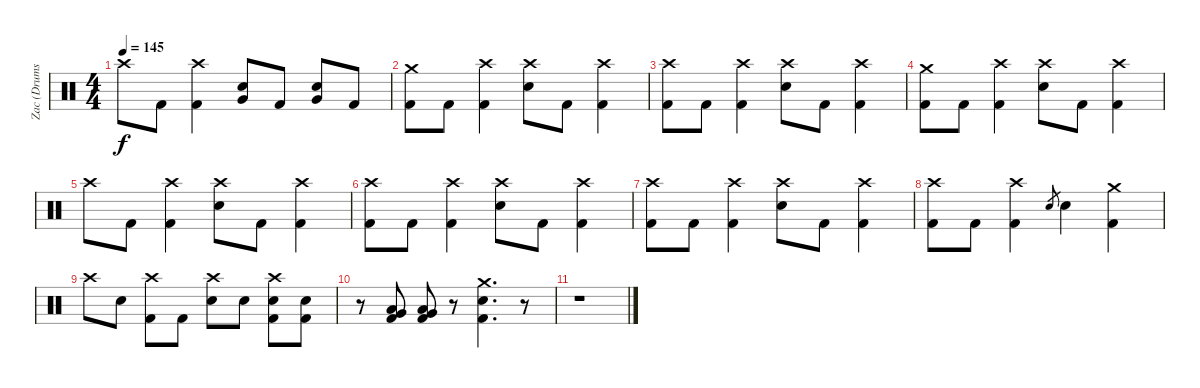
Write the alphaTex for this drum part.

\track ("Zac (Drums)" "Zac (Drums") {instrument percussion}
\staff {score}
\articulation defaults
\ts (4 4)
\tempo 145
\clef neutral
\ks c "Crash high (hit)".8{dy f} "Kick (hit) 2".8
("Crash high (hit)" "Kick (hit) 2").4 ("Very Low Tom (hit)" "Electric Snare (hit)").8 "Kick (hit) 2".8 ("Very Low Tom (hit)" "Electric Snare (hit)").8 "Kick (hit) 2".8 |
("Crash medium (hit)" "Kick (hit) 2").8 "Kick (hit) 2".8 ("Crash high (hit)" "Kick (hit) 2").4 ("Crash high (hit)" "Electric Snare (hit)").8 "Kick (hit) 2".8 ("Crash high (hit)" "Kick (hit) 2").4 |
("Crash high (hit)" "Kick (hit) 2").8 "Kick (hit) 2".8 ("Crash high (hit)" "Kick (hit) 2").4 ("Crash high (hit)" "Electric Snare (hit)").8 "Kick (hit) 2".8 ("Crash high (hit)" "Kick (hit) 2").4 |
("Crash medium (hit)" "Kick (hit) 2").8 "Kick (hit) 2".8 ("Crash high (hit)" "Kick (hit) 2").4 ("Crash high (hit)" "Electric Snare (hit)").8 "Kick (hit) 2".8 ("Crash high (hit)" "Kick (hit) 2").4 |
"Crash high (hit)".8 "Kick (hit) 2".8 ("Crash high (hit)" "Kick (hit) 2").4 ("Crash high (hit)" "Electric Snare (hit)").8 "Kick (hit) 2".8 ("Crash high (hit)" "Kick (hit) 2").4 |
("Crash high (hit)" "Kick (hit) 2").8 "Kick (hit) 2".8 ("Crash high (hit)" "Kick (hit) 2").4 ("Crash high (hit)" "Electric Snare (hit)").8 "Kick (hit) 2".8 ("Crash high (hit)" "Kick (hit) 2").4 |
("Crash high (hit)" "Kick (hit) 2").8 "Kick (hit) 2".8 ("Crash high (hit)" "Kick (hit) 2").4 ("Crash high (hit)" "Electric Snare (hit)").8 "Kick (hit) 2".8 ("Crash high (hit)" "Kick (hit) 2").4 |
("Crash high (hit)" "Kick (hit) 2").8 "Kick (hit) 2".8 ("Crash high (hit)" "Kick (hit) 2").4 "Electric Snare (hit)".8{gr} "Electric Snare (hit)".4 ("Crash medium (hit)" "Kick (hit) 2").4 |
"Crash high (hit)".8 "Electric Snare (hit)".8 ("Crash high (hit)" "Kick (hit) 2").8 "Kick (hit) 2".8 ("Crash high (hit)" "Electric Snare (hit)").8 "Electric Snare (hit)".8 ("Crash high (hit)" "Electric Snare (hit)" "Kick (hit) 2").8 ("Electric Snare (hit)" "Kick (hit) 2").8 |
r.8 ("Very Low Tom (hit)" "Low Tom (hit)" "Kick (hit) 2").8 ("Very Low Tom (hit)" "Low Tom (hit)" "Kick (hit) 2").8 r.8 ("Crash medium (hit)" "Electric Snare (hit)" "Kick (hit) 2").4{d} r.8 |
r.1
